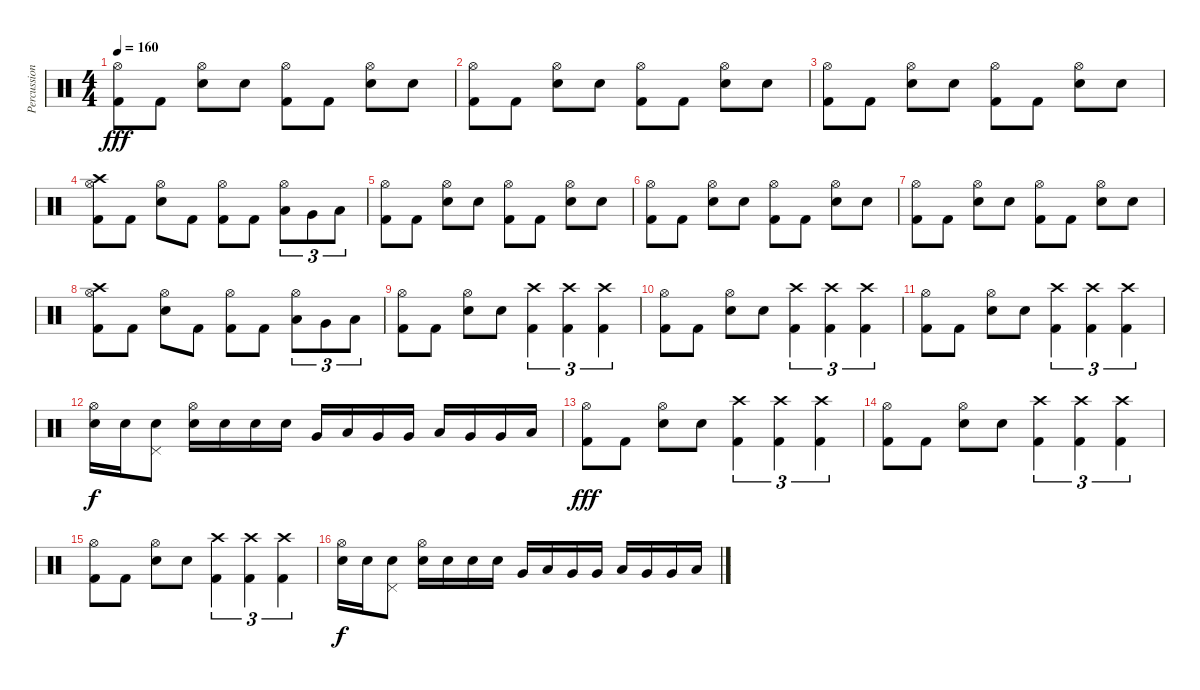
\track ("Percussion" "Percussion") {instrument percussion}
\staff {score}
\articulation defaults
\ts (4 4)
\tempo 160
\clef neutral
\ks c
("Kick (hit) 2" "Hi-Hat (open)").8{dy fff} "Kick (hit) 2".8 ("Snare (hit) 2" "Hi-Hat (open)").8 "Snare (hit) 2".8 ("Kick (hit) 2" "Hi-Hat (open)").8 "Kick (hit) 2".8 ("Snare (hit) 2" "Hi-Hat (open)").8 "Snare (hit) 2".8 |
("Kick (hit) 2" "Hi-Hat (open)").8 "Kick (hit) 2".8 ("Snare (hit) 2" "Hi-Hat (open)").8 "Snare (hit) 2".8 ("Kick (hit) 2" "Hi-Hat (open)").8 "Kick (hit) 2".8 ("Snare (hit) 2" "Hi-Hat (open)").8 "Snare (hit) 2".8 |
("Kick (hit) 2" "Hi-Hat (open)").8 "Kick (hit) 2".8 ("Snare (hit) 2" "Hi-Hat (open)").8 "Snare (hit) 2".8 ("Kick (hit) 2" "Hi-Hat (open)").8 "Kick (hit) 2".8 ("Snare (hit) 2" "Hi-Hat (open)").8 "Snare (hit) 2".8 |
("Kick (hit) 2" "Hi-Hat (open)" "Crash high (hit)").8 "Kick (hit) 2".8 ("Snare (hit) 2" "Hi-Hat (open)").8 "Kick (hit) 2".8 ("Kick (hit) 2" "Hi-Hat (open)").8 "Kick (hit) 2".8 ("Low Tom (hit)" "Hi-Hat (open)").8{tu (3 2)} "Very Low Tom (hit)".8{tu (3 2)} "Low Floor Tom (hit)".8{tu (3 2)} |
("Kick (hit) 2" "Hi-Hat (open)").8 "Kick (hit) 2".8 ("Snare (hit) 2" "Hi-Hat (open)").8 "Snare (hit) 2".8 ("Kick (hit) 2" "Hi-Hat (open)").8 "Kick (hit) 2".8 ("Snare (hit) 2" "Hi-Hat (open)").8 "Snare (hit) 2".8 |
("Kick (hit) 2" "Hi-Hat (open)").8 "Kick (hit) 2".8 ("Snare (hit) 2" "Hi-Hat (open)").8 "Snare (hit) 2".8 ("Kick (hit) 2" "Hi-Hat (open)").8 "Kick (hit) 2".8 ("Snare (hit) 2" "Hi-Hat (open)").8 "Snare (hit) 2".8 |
("Kick (hit) 2" "Hi-Hat (open)").8 "Kick (hit) 2".8 ("Snare (hit) 2" "Hi-Hat (open)").8 "Snare (hit) 2".8 ("Kick (hit) 2" "Hi-Hat (open)").8 "Kick (hit) 2".8 ("Snare (hit) 2" "Hi-Hat (open)").8 "Snare (hit) 2".8 |
("Kick (hit) 2" "Hi-Hat (open)" "Crash high (hit)").8 "Kick (hit) 2".8 ("Snare (hit) 2" "Hi-Hat (open)").8 "Kick (hit) 2".8 ("Kick (hit) 2" "Hi-Hat (open)").8 "Kick (hit) 2".8 ("Low Tom (hit)" "Hi-Hat (open)").8{tu (3 2)} "Very Low Tom (hit)".8{tu (3 2)} "Low Floor Tom (hit)".8{tu (3 2)} |
("Kick (hit) 2" "Hi-Hat (open)").8 "Kick (hit) 2".8 ("Snare (hit) 2" "Hi-Hat (open)").8 "Snare (hit) 2".8 ("Kick (hit) 2" "Crash high (hit)").4{tu (3 2)} ("Kick (hit) 2" "Crash high (hit)").4{tu (3 2)} ("Kick (hit) 2" "Crash high (hit)").4{tu (3 2)} |
("Kick (hit) 2" "Hi-Hat (open)").8 "Kick (hit) 2".8 ("Snare (hit) 2" "Hi-Hat (open)").8 "Snare (hit) 2".8 ("Kick (hit) 2" "Crash high (hit)").4{tu (3 2)} ("Kick (hit) 2" "Crash high (hit)").4{tu (3 2)} ("Kick (hit) 2" "Crash high (hit)").4{tu (3 2)} |
("Kick (hit) 2" "Hi-Hat (open)").8 "Kick (hit) 2".8 ("Snare (hit) 2" "Hi-Hat (open)").8 "Snare (hit) 2".8 ("Kick (hit) 2" "Crash high (hit)").4{tu (3 2)} ("Kick (hit) 2" "Crash high (hit)").4{tu (3 2)} ("Kick (hit) 2" "Crash high (hit)").4{tu (3 2)} |
("Hi-Hat (open)" "Electric Snare (hit)").16{dy f} "Electric Snare (hit)".16 ("Pedal Hi-Hat (hit)" "Electric Snare (hit)").8 ("Hi-Hat (open)" "Electric Snare (hit)").16 "Electric Snare (hit)".16 "Electric Snare (hit)".16 "Electric Snare (hit)".16 "Very Low Tom (hit)".16 "Low Tom (hit)".16 "Very Low Tom (hit)".16 "Very Low Tom (hit)".16 "Low Tom (hit)".16 "Very Low Tom (hit)".16 "Very Low Tom (hit)".16 "Low Tom (hit)".16 |
("Kick (hit) 2" "Hi-Hat (open)").8{dy fff} "Kick (hit) 2".8 ("Snare (hit) 2" "Hi-Hat (open)").8 "Snare (hit) 2".8 ("Kick (hit) 2" "Crash high (hit)").4{tu (3 2)} ("Kick (hit) 2" "Crash high (hit)").4{tu (3 2)} ("Kick (hit) 2" "Crash high (hit)").4{tu (3 2)} |
("Kick (hit) 2" "Hi-Hat (open)").8 "Kick (hit) 2".8 ("Snare (hit) 2" "Hi-Hat (open)").8 "Snare (hit) 2".8 ("Kick (hit) 2" "Crash high (hit)").4{tu (3 2)} ("Kick (hit) 2" "Crash high (hit)").4{tu (3 2)} ("Kick (hit) 2" "Crash high (hit)").4{tu (3 2)} |
("Kick (hit) 2" "Hi-Hat (open)").8 "Kick (hit) 2".8 ("Snare (hit) 2" "Hi-Hat (open)").8 "Snare (hit) 2".8 ("Kick (hit) 2" "Crash high (hit)").4{tu (3 2)} ("Kick (hit) 2" "Crash high (hit)").4{tu (3 2)} ("Kick (hit) 2" "Crash high (hit)").4{tu (3 2)} |
("Hi-Hat (open)" "Electric Snare (hit)").16{dy f} "Electric Snare (hit)".16 ("Pedal Hi-Hat (hit)" "Electric Snare (hit)").8 ("Hi-Hat (open)" "Electric Snare (hit)").16 "Electric Snare (hit)".16 "Electric Snare (hit)".16 "Electric Snare (hit)".16 "Very Low Tom (hit)".16 "Low Tom (hit)".16 "Very Low Tom (hit)".16 "Very Low Tom (hit)".16 "Low Tom (hit)".16 "Very Low Tom (hit)".16 "Very Low Tom (hit)".16 "Low Tom (hit)".16
